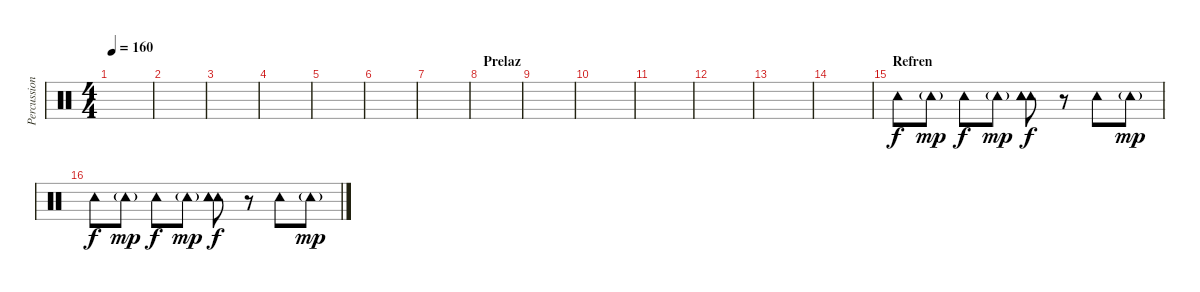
\track ("Percussion" "Percussion") {instrument percussion}
\staff {score}
\articulation defaults
\ts (4 4)
\tempo 160
\clef neutral
\ks c
|
|
|
|
|
|
|
\section ("" "Prelaz")
|
|
|
|
|
|
|
\section ("" "Refren")
"Tambourine (hit)".8{dy f} "Tambourine (hit)"{g}.8{dy mp} "Tambourine (hit)".8{dy f} "Tambourine (hit)"{g}.8{dy mp} ("Tambourine (hit)" "Tambourine (hit)" "Tambourine (hit)").8{dy f} r.8 "Tambourine (hit)".8 "Tambourine (hit)"{g}.8{dy mp} |
"Tambourine (hit)".8{dy f} "Tambourine (hit)"{g}.8{dy mp} "Tambourine (hit)".8{dy f} "Tambourine (hit)"{g}.8{dy mp} ("Tambourine (hit)" "Tambourine (hit)" "Tambourine (hit)").8{dy f} r.8 "Tambourine (hit)".8 "Tambourine (hit)"{g}.8{dy mp}
